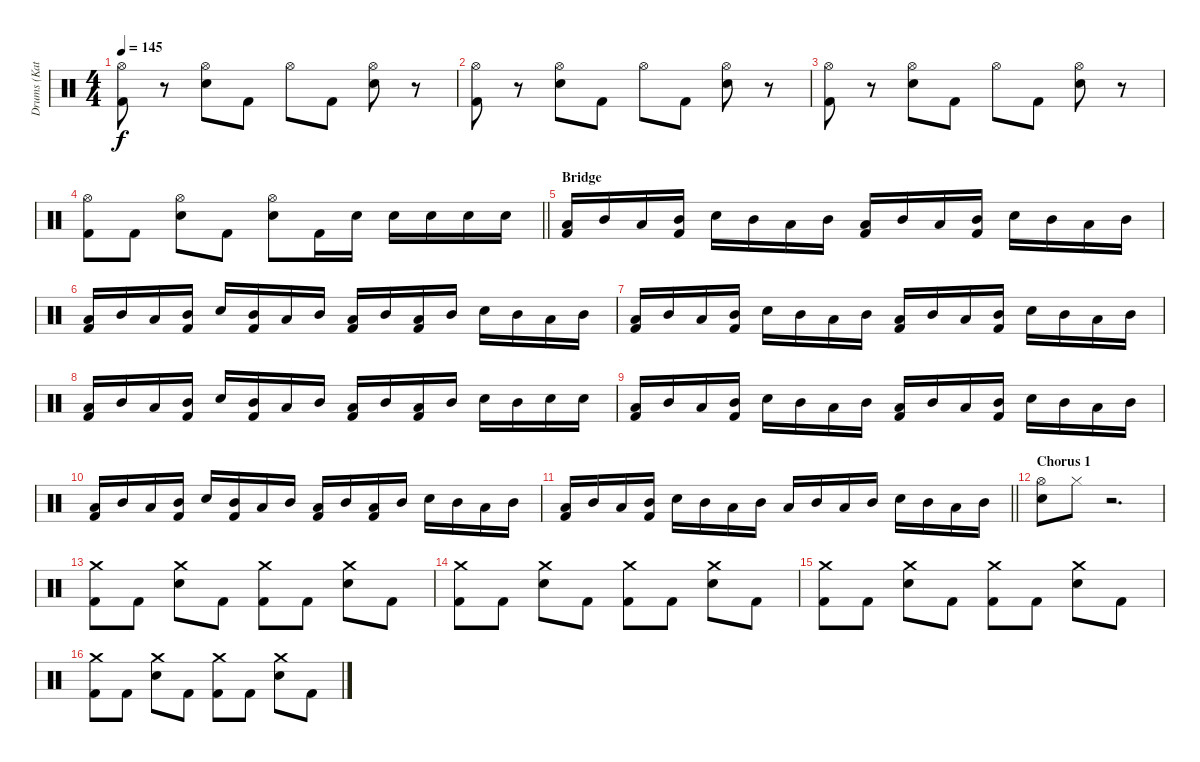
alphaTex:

\track ("Drums (Katsuma)" "Drums (Kat") {instrument percussion}
\staff {score}
\articulation defaults
\ts (4 4)
\tempo 145
\clef neutral
\ks c
("Hi-Hat (open)" "Kick (hit) 2").8{dy f} r.8 ("Hi-Hat (open)" "Electric Snare (hit)").8 "Kick (hit) 2".8 "Hi-Hat (open)".8 "Kick (hit) 2".8 ("Hi-Hat (open)" "Electric Snare (hit)").8 r.8 |
("Hi-Hat (open)" "Kick (hit) 2").8 r.8 ("Hi-Hat (open)" "Electric Snare (hit)").8 "Kick (hit) 2".8 "Hi-Hat (open)".8 "Kick (hit) 2".8 ("Hi-Hat (open)" "Electric Snare (hit)").8 r.8 |
("Hi-Hat (open)" "Kick (hit) 2").8 r.8 ("Hi-Hat (open)" "Electric Snare (hit)").8 "Kick (hit) 2".8 "Hi-Hat (open)".8 "Kick (hit) 2".8 ("Hi-Hat (open)" "Electric Snare (hit)").8 r.8 |
\barLineRight lightlight
("Hi-Hat (open)" "Kick (hit) 2").8 "Kick (hit) 2".8 ("Hi-Hat (open)" "Electric Snare (hit)").8 "Kick (hit) 2".8 ("Hi-Hat (open)" "Electric Snare (hit)").8 "Kick (hit) 2".16 "Electric Snare (hit)".16 "Electric Snare (hit)".16 "Electric Snare (hit)".16 "Electric Snare (hit)".16 "Electric Snare (hit)".16 |
\section ("" "Bridge")
("Low Tom (hit)" "Kick (hit) 2").16 "Mid Tom (hit)".16 "Low Tom (hit)".16 ("Mid Tom (hit)" "Kick (hit) 2").16 "Electric Snare (hit)".16 "Mid Tom (hit)".16 "Low Tom (hit)".16 "Mid Tom (hit)".16 ("Low Tom (hit)" "Kick (hit) 2").16 "Mid Tom (hit)".16 "Low Tom (hit)".16 ("Mid Tom (hit)" "Kick (hit) 2").16 "Electric Snare (hit)".16 "Mid Tom (hit)".16 "Low Tom (hit)".16 "Mid Tom (hit)".16 |
("Low Tom (hit)" "Kick (hit) 2").16 "Mid Tom (hit)".16 "Low Tom (hit)".16 ("Mid Tom (hit)" "Kick (hit) 2").16 "Electric Snare (hit)".16 ("Mid Tom (hit)" "Kick (hit) 2").16 "Low Tom (hit)".16 "Mid Tom (hit)".16 ("Low Tom (hit)" "Kick (hit) 2").16 "Mid Tom (hit)".16 ("Low Tom (hit)" "Kick (hit) 2").16 "Mid Tom (hit)".16 "Electric Snare (hit)".16 "Mid Tom (hit)".16 "Low Tom (hit)".16 "Mid Tom (hit)".16 |
("Low Tom (hit)" "Kick (hit) 2").16 "Mid Tom (hit)".16 "Low Tom (hit)".16 ("Mid Tom (hit)" "Kick (hit) 2").16 "Electric Snare (hit)".16 "Mid Tom (hit)".16 "Low Tom (hit)".16 "Mid Tom (hit)".16 ("Low Tom (hit)" "Kick (hit) 2").16 "Mid Tom (hit)".16 "Low Tom (hit)".16 ("Mid Tom (hit)" "Kick (hit) 2").16 "Electric Snare (hit)".16 "Mid Tom (hit)".16 "Low Tom (hit)".16 "Mid Tom (hit)".16 |
("Low Tom (hit)" "Kick (hit) 2").16 "Mid Tom (hit)".16 "Low Tom (hit)".16 ("Mid Tom (hit)" "Kick (hit) 2").16 "Electric Snare (hit)".16 ("Mid Tom (hit)" "Kick (hit) 2").16 "Low Tom (hit)".16 "Mid Tom (hit)".16 ("Low Tom (hit)" "Kick (hit) 2").16 "Mid Tom (hit)".16 ("Low Tom (hit)" "Kick (hit) 2").16 "Mid Tom (hit)".16 "Electric Snare (hit)".16 "Mid Tom (hit)".16 "Electric Snare (hit)".16 "Electric Snare (hit)".16 |
("Low Tom (hit)" "Kick (hit) 2").16 "Mid Tom (hit)".16 "Low Tom (hit)".16 ("Mid Tom (hit)" "Kick (hit) 2").16 "Electric Snare (hit)".16 "Mid Tom (hit)".16 "Low Tom (hit)".16 "Mid Tom (hit)".16 ("Low Tom (hit)" "Kick (hit) 2").16 "Mid Tom (hit)".16 "Low Tom (hit)".16 ("Mid Tom (hit)" "Kick (hit) 2").16 "Electric Snare (hit)".16 "Mid Tom (hit)".16 "Low Tom (hit)".16 "Mid Tom (hit)".16 |
("Low Tom (hit)" "Kick (hit) 2").16 "Mid Tom (hit)".16 "Low Tom (hit)".16 ("Mid Tom (hit)" "Kick (hit) 2").16 "Electric Snare (hit)".16 ("Mid Tom (hit)" "Kick (hit) 2").16 "Low Tom (hit)".16 "Mid Tom (hit)".16 ("Low Tom (hit)" "Kick (hit) 2").16 "Mid Tom (hit)".16 ("Low Tom (hit)" "Kick (hit) 2").16 "Mid Tom (hit)".16 "Electric Snare (hit)".16 "Mid Tom (hit)".16 "Low Tom (hit)".16 "Mid Tom (hit)".16 |
\barLineRight lightlight
("Low Tom (hit)" "Kick (hit) 2").16 "Mid Tom (hit)".16 "Low Tom (hit)".16 ("Mid Tom (hit)" "Kick (hit) 2").16 "Electric Snare (hit)".16 "Mid Tom (hit)".16 "Low Tom (hit)".16 "Mid Tom (hit)".16 "Low Tom (hit)".16 "Mid Tom (hit)".16 "Low Tom (hit)".16 "Mid Tom (hit)".16 "Electric Snare (hit)".16 "Mid Tom (hit)".16 "Low Tom (hit)".16 "Mid Tom (hit)".16 |
\section ("" "Chorus 1")
("Hi-Hat (open)" "Electric Snare (hit)").8 "Hi-Hat (closed)".8 r.2{d} |
("Crash medium (hit)" "Kick (hit) 2").8 "Kick (hit) 2".8 ("Crash medium (hit)" "Electric Snare (hit)").8 "Kick (hit) 2".8 ("Crash medium (hit)" "Kick (hit) 2").8 "Kick (hit) 2".8 ("Crash medium (hit)" "Electric Snare (hit)").8 "Kick (hit) 2".8 |
("Crash medium (hit)" "Kick (hit) 2").8 "Kick (hit) 2".8 ("Crash medium (hit)" "Electric Snare (hit)").8 "Kick (hit) 2".8 ("Crash medium (hit)" "Kick (hit) 2").8 "Kick (hit) 2".8 ("Crash medium (hit)" "Electric Snare (hit)").8 "Kick (hit) 2".8 |
("Crash medium (hit)" "Kick (hit) 2").8 "Kick (hit) 2".8 ("Crash medium (hit)" "Electric Snare (hit)").8 "Kick (hit) 2".8 ("Crash medium (hit)" "Kick (hit) 2").8 "Kick (hit) 2".8 ("Crash medium (hit)" "Electric Snare (hit)").8 "Kick (hit) 2".8 |
("Crash medium (hit)" "Kick (hit) 2").8 "Kick (hit) 2".8 ("Crash medium (hit)" "Electric Snare (hit)").8 "Kick (hit) 2".8 ("Crash medium (hit)" "Kick (hit) 2").8 "Kick (hit) 2".8 ("Crash medium (hit)" "Electric Snare (hit)").8 "Kick (hit) 2".8
